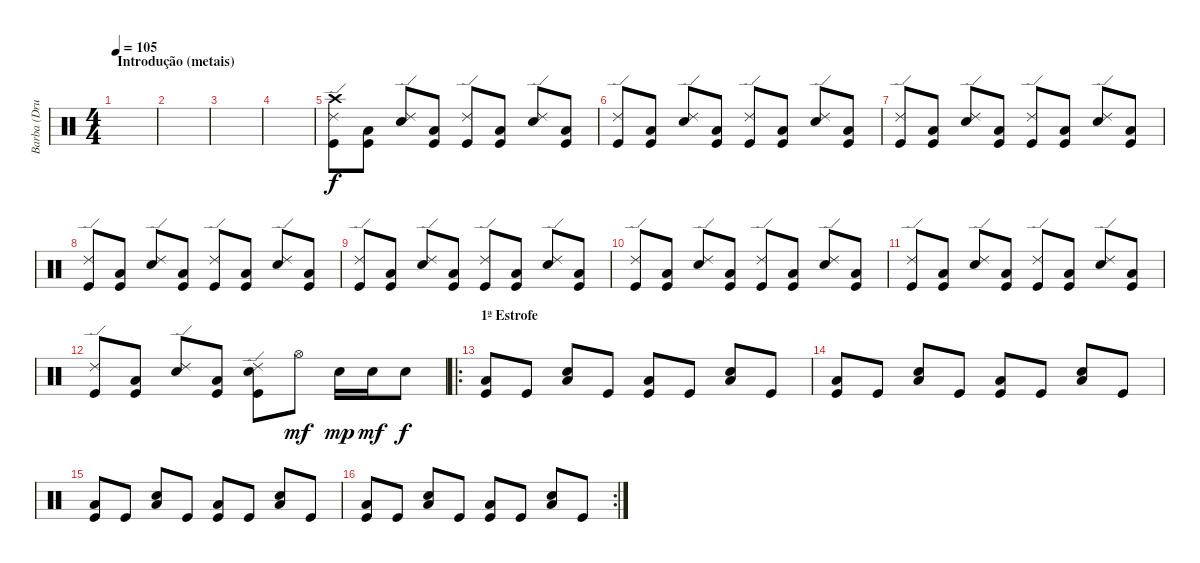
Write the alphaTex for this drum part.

\track ("Barba (Drums)" "Barba (Dru") {instrument percussion}
\staff {score}
\articulation defaults
\ts (4 4)
\section ("" "Introdução (metais)")
\tempo 105
\clef neutral
\ks c
|
|
|
|
("Ride (edge) 2" "Kick (hit)" "Crash high (hit)").8 ("Kick (hit)" "Low Floor Tom (hit)").8 ("Ride (edge) 2" "Electric Snare (hit)").8 ("Kick (hit)" "Low Floor Tom (hit)").8 ("Ride (edge) 2" "Kick (hit)").8 ("Kick (hit)" "Low Floor Tom (hit)").8 ("Ride (edge) 2" "Electric Snare (hit)").8 ("Kick (hit)" "Low Floor Tom (hit)").8 |
("Ride (edge) 2" "Kick (hit)").8 ("Low Floor Tom (hit)" "Kick (hit)").8 ("Ride (edge) 2" "Electric Snare (hit)").8 ("Low Floor Tom (hit)" "Kick (hit)").8 ("Ride (edge) 2" "Kick (hit)").8 ("Low Floor Tom (hit)" "Kick (hit)").8 ("Ride (edge) 2" "Electric Snare (hit)").8 ("Low Floor Tom (hit)" "Kick (hit)").8 |
("Ride (edge) 2" "Kick (hit)").8 ("Low Floor Tom (hit)" "Kick (hit)").8 ("Ride (edge) 2" "Electric Snare (hit)").8 ("Low Floor Tom (hit)" "Kick (hit)").8 ("Ride (edge) 2" "Kick (hit)").8 ("Low Floor Tom (hit)" "Kick (hit)").8 ("Ride (edge) 2" "Electric Snare (hit)").8 ("Low Floor Tom (hit)" "Kick (hit)").8 |
("Ride (edge) 2" "Kick (hit)").8 ("Low Floor Tom (hit)" "Kick (hit)").8 ("Ride (edge) 2" "Electric Snare (hit)").8 ("Low Floor Tom (hit)" "Kick (hit)").8 ("Ride (edge) 2" "Kick (hit)").8 ("Low Floor Tom (hit)" "Kick (hit)").8 ("Ride (edge) 2" "Electric Snare (hit)").8 ("Low Floor Tom (hit)" "Kick (hit)").8 |
("Ride (edge) 2" "Kick (hit)").8 ("Low Floor Tom (hit)" "Kick (hit)").8 ("Ride (edge) 2" "Electric Snare (hit)").8 ("Low Floor Tom (hit)" "Kick (hit)").8 ("Ride (edge) 2" "Kick (hit)").8 ("Low Floor Tom (hit)" "Kick (hit)").8 ("Ride (edge) 2" "Electric Snare (hit)").8 ("Low Floor Tom (hit)" "Kick (hit)").8 |
("Ride (edge) 2" "Kick (hit)").8 ("Low Floor Tom (hit)" "Kick (hit)").8 ("Ride (edge) 2" "Electric Snare (hit)").8 ("Low Floor Tom (hit)" "Kick (hit)").8 ("Ride (edge) 2" "Kick (hit)").8 ("Low Floor Tom (hit)" "Kick (hit)").8 ("Ride (edge) 2" "Electric Snare (hit)").8 ("Low Floor Tom (hit)" "Kick (hit)").8 |
("Ride (edge) 2" "Kick (hit)").8 ("Low Floor Tom (hit)" "Kick (hit)").8 ("Ride (edge) 2" "Electric Snare (hit)").8 ("Low Floor Tom (hit)" "Kick (hit)").8 ("Ride (edge) 2" "Kick (hit)").8 ("Low Floor Tom (hit)" "Kick (hit)").8 ("Ride (edge) 2" "Electric Snare (hit)").8 ("Low Floor Tom (hit)" "Kick (hit)").8 |
("Ride (edge) 2" "Kick (hit)").8 ("Low Floor Tom (hit)" "Kick (hit)").8 ("Ride (edge) 2" "Electric Snare (hit)").8 ("Low Floor Tom (hit)" "Kick (hit)").8 ("Ride (edge) 2" "Electric Snare (hit)" "Kick (hit)").8 "Hi-Hat (open)".8{dy mf} "Electric Snare (hit)".16{dy mp} "Electric Snare (hit)".16{dy mf} "Electric Snare (hit)".8{dy f} |
\ro
\section ("" "1ª Estrofe")
("Low Floor Tom (hit)" "Kick (hit)").8 "Kick (hit)".8 ("Low Floor Tom (hit)" "Electric Snare (hit)").8 "Kick (hit)".8 ("Low Floor Tom (hit)" "Kick (hit)").8 "Kick (hit)".8 ("Low Floor Tom (hit)" "Electric Snare (hit)").8 "Kick (hit)".8 |
("Low Floor Tom (hit)" "Kick (hit)").8 "Kick (hit)".8 ("Low Floor Tom (hit)" "Electric Snare (hit)").8 "Kick (hit)".8 ("Low Floor Tom (hit)" "Kick (hit)").8 "Kick (hit)".8 ("Low Floor Tom (hit)" "Electric Snare (hit)").8 "Kick (hit)".8 |
("Low Floor Tom (hit)" "Kick (hit)").8 "Kick (hit)".8 ("Low Floor Tom (hit)" "Electric Snare (hit)").8 "Kick (hit)".8 ("Low Floor Tom (hit)" "Kick (hit)").8 "Kick (hit)".8 ("Low Floor Tom (hit)" "Electric Snare (hit)").8 "Kick (hit)".8 |
\rc 2
("Low Floor Tom (hit)" "Kick (hit)").8 "Kick (hit)".8 ("Low Floor Tom (hit)" "Electric Snare (hit)").8 "Kick (hit)".8 ("Low Floor Tom (hit)" "Kick (hit)").8 "Kick (hit)".8 ("Low Floor Tom (hit)" "Electric Snare (hit)").8 "Kick (hit)".8
